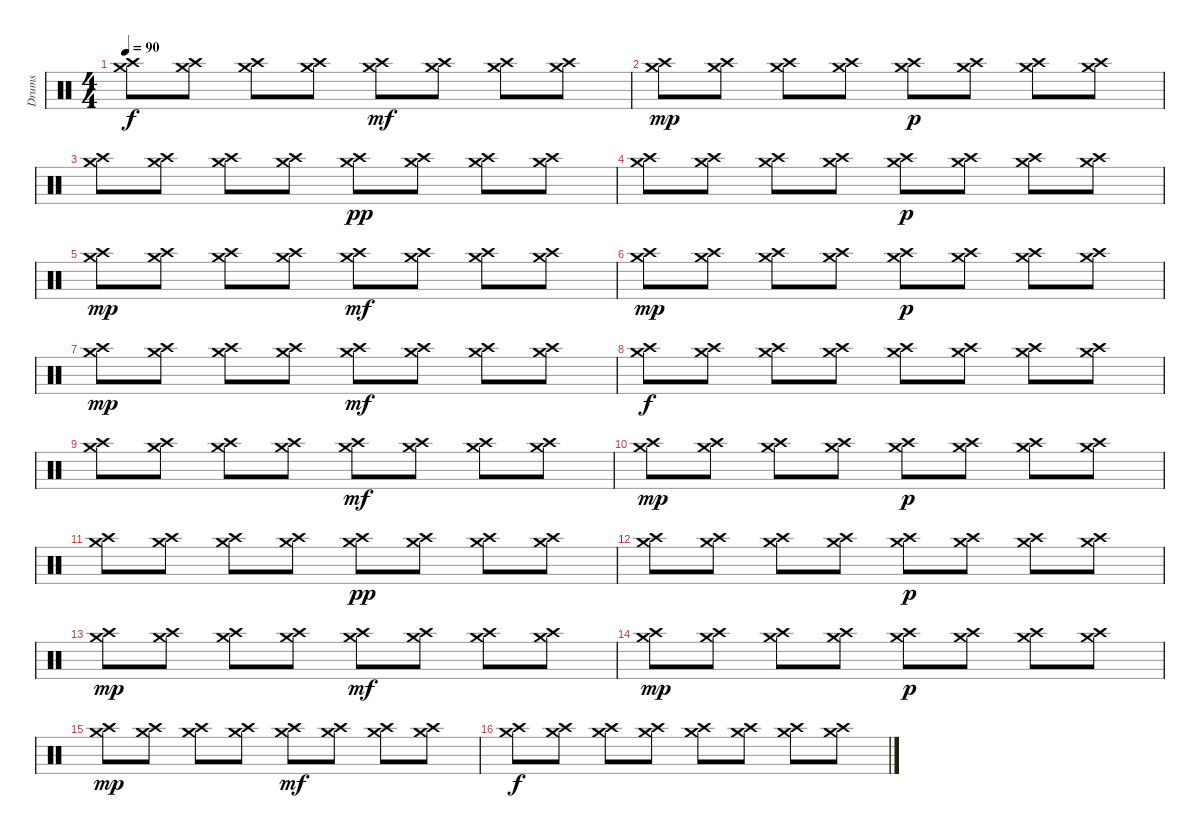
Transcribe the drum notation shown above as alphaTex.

\track ("Drums" "Drums") {instrument percussion}
\staff {score}
\articulation defaults
\ts (4 4)
\tempo 90
\clef neutral
\ks c
("Crash medium (hit)" "Crash high (hit)").8{dy f} ("Crash medium (hit)" "Crash high (hit)").8 ("Crash medium (hit)" "Crash high (hit)").8 ("Crash medium (hit)" "Crash high (hit)").8 ("Crash medium (hit)" "Crash high (hit)").8{dy mf} ("Crash medium (hit)" "Crash high (hit)").8 ("Crash medium (hit)" "Crash high (hit)").8 ("Crash medium (hit)" "Crash high (hit)").8 |
("Crash medium (hit)" "Crash high (hit)").8{dy mp} ("Crash medium (hit)" "Crash high (hit)").8 ("Crash medium (hit)" "Crash high (hit)").8 ("Crash medium (hit)" "Crash high (hit)").8 ("Crash medium (hit)" "Crash high (hit)").8{dy p} ("Crash medium (hit)" "Crash high (hit)").8 ("Crash medium (hit)" "Crash high (hit)").8 ("Crash medium (hit)" "Crash high (hit)").8 |
("Crash medium (hit)" "Crash high (hit)").8 ("Crash medium (hit)" "Crash high (hit)").8 ("Crash medium (hit)" "Crash high (hit)").8 ("Crash medium (hit)" "Crash high (hit)").8 ("Crash medium (hit)" "Crash high (hit)").8{dy pp} ("Crash medium (hit)" "Crash high (hit)").8 ("Crash medium (hit)" "Crash high (hit)").8 ("Crash medium (hit)" "Crash high (hit)").8 |
("Crash medium (hit)" "Crash high (hit)").8 ("Crash medium (hit)" "Crash high (hit)").8 ("Crash medium (hit)" "Crash high (hit)").8 ("Crash medium (hit)" "Crash high (hit)").8 ("Crash medium (hit)" "Crash high (hit)").8{dy p} ("Crash medium (hit)" "Crash high (hit)").8 ("Crash medium (hit)" "Crash high (hit)").8 ("Crash medium (hit)" "Crash high (hit)").8 |
("Crash medium (hit)" "Crash high (hit)").8{dy mp} ("Crash medium (hit)" "Crash high (hit)").8 ("Crash medium (hit)" "Crash high (hit)").8 ("Crash medium (hit)" "Crash high (hit)").8 ("Crash medium (hit)" "Crash high (hit)").8{dy mf} ("Crash medium (hit)" "Crash high (hit)").8 ("Crash medium (hit)" "Crash high (hit)").8 ("Crash medium (hit)" "Crash high (hit)").8 |
("Crash medium (hit)" "Crash high (hit)").8{dy mp} ("Crash medium (hit)" "Crash high (hit)").8 ("Crash medium (hit)" "Crash high (hit)").8 ("Crash medium (hit)" "Crash high (hit)").8 ("Crash medium (hit)" "Crash high (hit)").8{dy p} ("Crash medium (hit)" "Crash high (hit)").8 ("Crash medium (hit)" "Crash high (hit)").8 ("Crash medium (hit)" "Crash high (hit)").8 |
("Crash medium (hit)" "Crash high (hit)").8{dy mp} ("Crash medium (hit)" "Crash high (hit)").8 ("Crash medium (hit)" "Crash high (hit)").8 ("Crash medium (hit)" "Crash high (hit)").8 ("Crash medium (hit)" "Crash high (hit)").8{dy mf} ("Crash medium (hit)" "Crash high (hit)").8 ("Crash medium (hit)" "Crash high (hit)").8 ("Crash medium (hit)" "Crash high (hit)").8 |
("Crash medium (hit)" "Crash high (hit)").8{dy f} ("Crash medium (hit)" "Crash high (hit)").8 ("Crash medium (hit)" "Crash high (hit)").8 ("Crash medium (hit)" "Crash high (hit)").8 ("Crash medium (hit)" "Crash high (hit)").8 ("Crash medium (hit)" "Crash high (hit)").8 ("Crash medium (hit)" "Crash high (hit)").8 ("Crash medium (hit)" "Crash high (hit)").8 |
("Crash medium (hit)" "Crash high (hit)").8 ("Crash medium (hit)" "Crash high (hit)").8 ("Crash medium (hit)" "Crash high (hit)").8 ("Crash medium (hit)" "Crash high (hit)").8 ("Crash medium (hit)" "Crash high (hit)").8{dy mf} ("Crash medium (hit)" "Crash high (hit)").8 ("Crash medium (hit)" "Crash high (hit)").8 ("Crash medium (hit)" "Crash high (hit)").8 |
("Crash medium (hit)" "Crash high (hit)").8{dy mp} ("Crash medium (hit)" "Crash high (hit)").8 ("Crash medium (hit)" "Crash high (hit)").8 ("Crash medium (hit)" "Crash high (hit)").8 ("Crash medium (hit)" "Crash high (hit)").8{dy p} ("Crash medium (hit)" "Crash high (hit)").8 ("Crash medium (hit)" "Crash high (hit)").8 ("Crash medium (hit)" "Crash high (hit)").8 |
("Crash medium (hit)" "Crash high (hit)").8 ("Crash medium (hit)" "Crash high (hit)").8 ("Crash medium (hit)" "Crash high (hit)").8 ("Crash medium (hit)" "Crash high (hit)").8 ("Crash medium (hit)" "Crash high (hit)").8{dy pp} ("Crash medium (hit)" "Crash high (hit)").8 ("Crash medium (hit)" "Crash high (hit)").8 ("Crash medium (hit)" "Crash high (hit)").8 |
("Crash medium (hit)" "Crash high (hit)").8 ("Crash medium (hit)" "Crash high (hit)").8 ("Crash medium (hit)" "Crash high (hit)").8 ("Crash medium (hit)" "Crash high (hit)").8 ("Crash medium (hit)" "Crash high (hit)").8{dy p} ("Crash medium (hit)" "Crash high (hit)").8 ("Crash medium (hit)" "Crash high (hit)").8 ("Crash medium (hit)" "Crash high (hit)").8 |
("Crash medium (hit)" "Crash high (hit)").8{dy mp} ("Crash medium (hit)" "Crash high (hit)").8 ("Crash medium (hit)" "Crash high (hit)").8 ("Crash medium (hit)" "Crash high (hit)").8 ("Crash medium (hit)" "Crash high (hit)").8{dy mf} ("Crash medium (hit)" "Crash high (hit)").8 ("Crash medium (hit)" "Crash high (hit)").8 ("Crash medium (hit)" "Crash high (hit)").8 |
("Crash medium (hit)" "Crash high (hit)").8{dy mp} ("Crash medium (hit)" "Crash high (hit)").8 ("Crash medium (hit)" "Crash high (hit)").8 ("Crash medium (hit)" "Crash high (hit)").8 ("Crash medium (hit)" "Crash high (hit)").8{dy p} ("Crash medium (hit)" "Crash high (hit)").8 ("Crash medium (hit)" "Crash high (hit)").8 ("Crash medium (hit)" "Crash high (hit)").8 |
("Crash medium (hit)" "Crash high (hit)").8{dy mp} ("Crash medium (hit)" "Crash high (hit)").8 ("Crash medium (hit)" "Crash high (hit)").8 ("Crash medium (hit)" "Crash high (hit)").8 ("Crash medium (hit)" "Crash high (hit)").8{dy mf} ("Crash medium (hit)" "Crash high (hit)").8 ("Crash medium (hit)" "Crash high (hit)").8 ("Crash medium (hit)" "Crash high (hit)").8 |
("Crash medium (hit)" "Crash high (hit)").8{dy f} ("Crash medium (hit)" "Crash high (hit)").8 ("Crash medium (hit)" "Crash high (hit)").8 ("Crash medium (hit)" "Crash high (hit)").8 ("Crash medium (hit)" "Crash high (hit)").8 ("Crash medium (hit)" "Crash high (hit)").8 ("Crash medium (hit)" "Crash high (hit)").8 ("Crash medium (hit)" "Crash high (hit)").8
